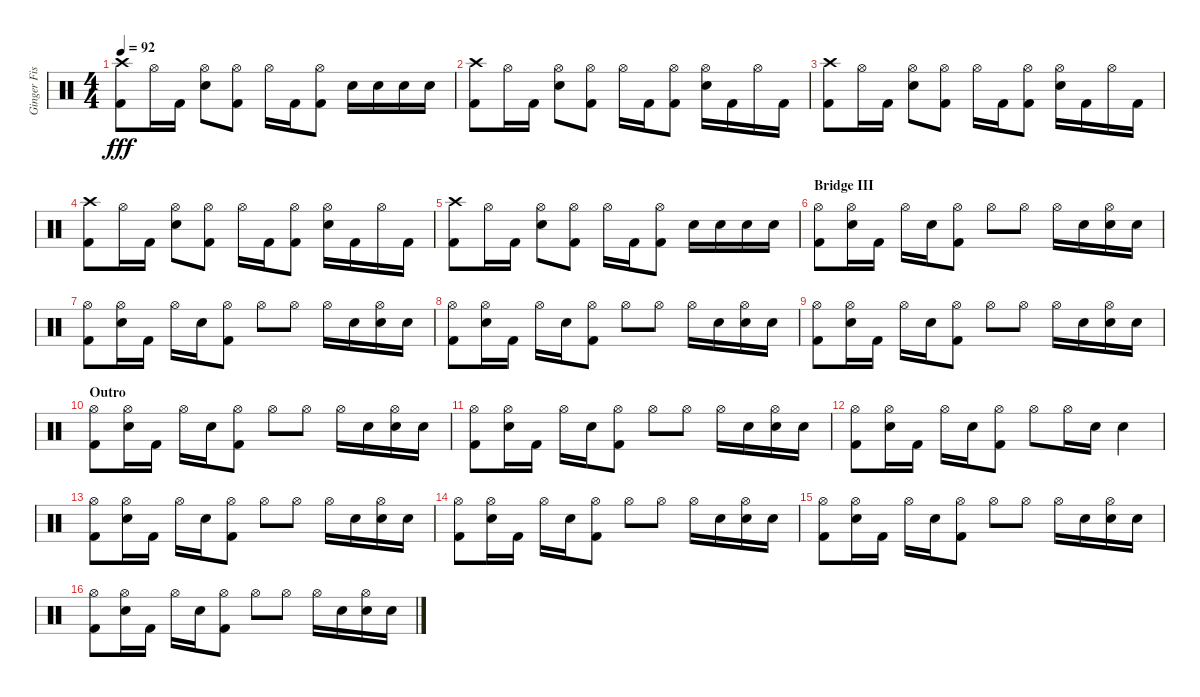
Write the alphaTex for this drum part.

\track ("Ginger Fish" "Ginger Fis") {instrument percussion}
\staff {score}
\articulation defaults
\ts (4 4)
\tempo 92
\clef neutral
\ks c
("Crash high (hit)" "Kick (hit) 2").8{dy fff} "Hi-Hat (open)".16 "Kick (hit) 2".16 ("Hi-Hat (open)" "Electric Snare (hit)").8 ("Hi-Hat (open)" "Kick (hit) 2").8 "Hi-Hat (open)".16 "Kick (hit) 2".16 ("Hi-Hat (open)" "Kick (hit) 2").8 "Electric Snare (hit)".16 "Electric Snare (hit)".16 "Electric Snare (hit)".16 "Electric Snare (hit)".16 |
("Crash high (hit)" "Kick (hit) 2").8 "Hi-Hat (open)".16 "Kick (hit) 2".16 ("Hi-Hat (open)" "Electric Snare (hit)").8 ("Hi-Hat (open)" "Kick (hit) 2").8 "Hi-Hat (open)".16 "Kick (hit) 2".16 ("Hi-Hat (open)" "Kick (hit) 2").8 ("Hi-Hat (open)" "Electric Snare (hit)").16 "Kick (hit) 2".16 "Hi-Hat (open)".16 "Kick (hit) 2".16 |
("Crash high (hit)" "Kick (hit) 2").8 "Hi-Hat (open)".16 "Kick (hit) 2".16 ("Hi-Hat (open)" "Electric Snare (hit)").8 ("Hi-Hat (open)" "Kick (hit) 2").8 "Hi-Hat (open)".16 "Kick (hit) 2".16 ("Hi-Hat (open)" "Kick (hit) 2").8 ("Hi-Hat (open)" "Electric Snare (hit)").16 "Kick (hit) 2".16 "Hi-Hat (open)".16 "Kick (hit) 2".16 |
("Crash high (hit)" "Kick (hit) 2").8 "Hi-Hat (open)".16 "Kick (hit) 2".16 ("Hi-Hat (open)" "Electric Snare (hit)").8 ("Hi-Hat (open)" "Kick (hit) 2").8 "Hi-Hat (open)".16 "Kick (hit) 2".16 ("Hi-Hat (open)" "Kick (hit) 2").8 ("Hi-Hat (open)" "Electric Snare (hit)").16 "Kick (hit) 2".16 "Hi-Hat (open)".16 "Kick (hit) 2".16 |
("Crash high (hit)" "Kick (hit) 2").8 "Hi-Hat (open)".16 "Kick (hit) 2".16 ("Hi-Hat (open)" "Electric Snare (hit)").8 ("Hi-Hat (open)" "Kick (hit) 2").8 "Hi-Hat (open)".16 "Kick (hit) 2".16 ("Hi-Hat (open)" "Kick (hit) 2").8 "Electric Snare (hit)".16 "Electric Snare (hit)".16 "Electric Snare (hit)".16 "Electric Snare (hit)".16 |
\section ("" "Bridge III")
("Hi-Hat (open)" "Kick (hit) 2").8 ("Hi-Hat (open)" "Electric Snare (hit)").16 "Kick (hit) 2".16 "Hi-Hat (open)".16 "Electric Snare (hit)".16 ("Hi-Hat (open)" "Kick (hit) 2").8 "Hi-Hat (open)".8 "Hi-Hat (open)".8 "Hi-Hat (open)".16 "Electric Snare (hit)".16 ("Hi-Hat (open)" "Electric Snare (hit)").16 "Electric Snare (hit)".16 |
("Hi-Hat (open)" "Kick (hit) 2").8 ("Hi-Hat (open)" "Electric Snare (hit)").16 "Kick (hit) 2".16 "Hi-Hat (open)".16 "Electric Snare (hit)".16 ("Hi-Hat (open)" "Kick (hit) 2").8 "Hi-Hat (open)".8 "Hi-Hat (open)".8 "Hi-Hat (open)".16 "Electric Snare (hit)".16 ("Hi-Hat (open)" "Electric Snare (hit)").16 "Electric Snare (hit)".16 |
("Hi-Hat (open)" "Kick (hit) 2").8 ("Hi-Hat (open)" "Electric Snare (hit)").16 "Kick (hit) 2".16 "Hi-Hat (open)".16 "Electric Snare (hit)".16 ("Hi-Hat (open)" "Kick (hit) 2").8 "Hi-Hat (open)".8 "Hi-Hat (open)".8 "Hi-Hat (open)".16 "Electric Snare (hit)".16 ("Hi-Hat (open)" "Electric Snare (hit)").16 "Electric Snare (hit)".16 |
("Hi-Hat (open)" "Kick (hit) 2").8 ("Hi-Hat (open)" "Electric Snare (hit)").16 "Kick (hit) 2".16 "Hi-Hat (open)".16 "Electric Snare (hit)".16 ("Hi-Hat (open)" "Kick (hit) 2").8 "Hi-Hat (open)".8 "Hi-Hat (open)".8 "Hi-Hat (open)".16 "Electric Snare (hit)".16 ("Hi-Hat (open)" "Electric Snare (hit)").16 "Electric Snare (hit)".16 |
\section ("" "Outro")
("Hi-Hat (open)" "Kick (hit) 2").8 ("Hi-Hat (open)" "Electric Snare (hit)").16 "Kick (hit) 2".16 "Hi-Hat (open)".16 "Electric Snare (hit)".16 ("Hi-Hat (open)" "Kick (hit) 2").8 "Hi-Hat (open)".8 "Hi-Hat (open)".8 "Hi-Hat (open)".16 "Electric Snare (hit)".16 ("Hi-Hat (open)" "Electric Snare (hit)").16 "Electric Snare (hit)".16 |
("Hi-Hat (open)" "Kick (hit) 2").8 ("Hi-Hat (open)" "Electric Snare (hit)").16 "Kick (hit) 2".16 "Hi-Hat (open)".16 "Electric Snare (hit)".16 ("Hi-Hat (open)" "Kick (hit) 2").8 "Hi-Hat (open)".8 "Hi-Hat (open)".8 "Hi-Hat (open)".16 "Electric Snare (hit)".16 ("Hi-Hat (open)" "Electric Snare (hit)").16 "Electric Snare (hit)".16 |
("Hi-Hat (open)" "Kick (hit) 2").8 ("Hi-Hat (open)" "Electric Snare (hit)").16 "Kick (hit) 2".16 "Hi-Hat (open)".16 "Electric Snare (hit)".16 ("Hi-Hat (open)" "Kick (hit) 2").8 "Hi-Hat (open)".8 "Hi-Hat (open)".16 "Electric Snare (hit)".16 "Electric Snare (hit)".4 |
("Hi-Hat (open)" "Kick (hit) 2").8 ("Hi-Hat (open)" "Electric Snare (hit)").16 "Kick (hit) 2".16 "Hi-Hat (open)".16 "Electric Snare (hit)".16 ("Hi-Hat (open)" "Kick (hit) 2").8 "Hi-Hat (open)".8 "Hi-Hat (open)".8 "Hi-Hat (open)".16 "Electric Snare (hit)".16 ("Hi-Hat (open)" "Electric Snare (hit)").16 "Electric Snare (hit)".16 |
("Hi-Hat (open)" "Kick (hit) 2").8 ("Hi-Hat (open)" "Electric Snare (hit)").16 "Kick (hit) 2".16 "Hi-Hat (open)".16 "Electric Snare (hit)".16 ("Hi-Hat (open)" "Kick (hit) 2").8 "Hi-Hat (open)".8 "Hi-Hat (open)".8 "Hi-Hat (open)".16 "Electric Snare (hit)".16 ("Hi-Hat (open)" "Electric Snare (hit)").16 "Electric Snare (hit)".16 |
("Hi-Hat (open)" "Kick (hit) 2").8 ("Hi-Hat (open)" "Electric Snare (hit)").16 "Kick (hit) 2".16 "Hi-Hat (open)".16 "Electric Snare (hit)".16 ("Hi-Hat (open)" "Kick (hit) 2").8 "Hi-Hat (open)".8 "Hi-Hat (open)".8 "Hi-Hat (open)".16 "Electric Snare (hit)".16 ("Hi-Hat (open)" "Electric Snare (hit)").16 "Electric Snare (hit)".16 |
("Hi-Hat (open)" "Kick (hit) 2").8 ("Hi-Hat (open)" "Electric Snare (hit)").16 "Kick (hit) 2".16 "Hi-Hat (open)".16 "Electric Snare (hit)".16 ("Hi-Hat (open)" "Kick (hit) 2").8 "Hi-Hat (open)".8 "Hi-Hat (open)".8 "Hi-Hat (open)".16 "Electric Snare (hit)".16 ("Hi-Hat (open)" "Electric Snare (hit)").16 "Electric Snare (hit)".16
